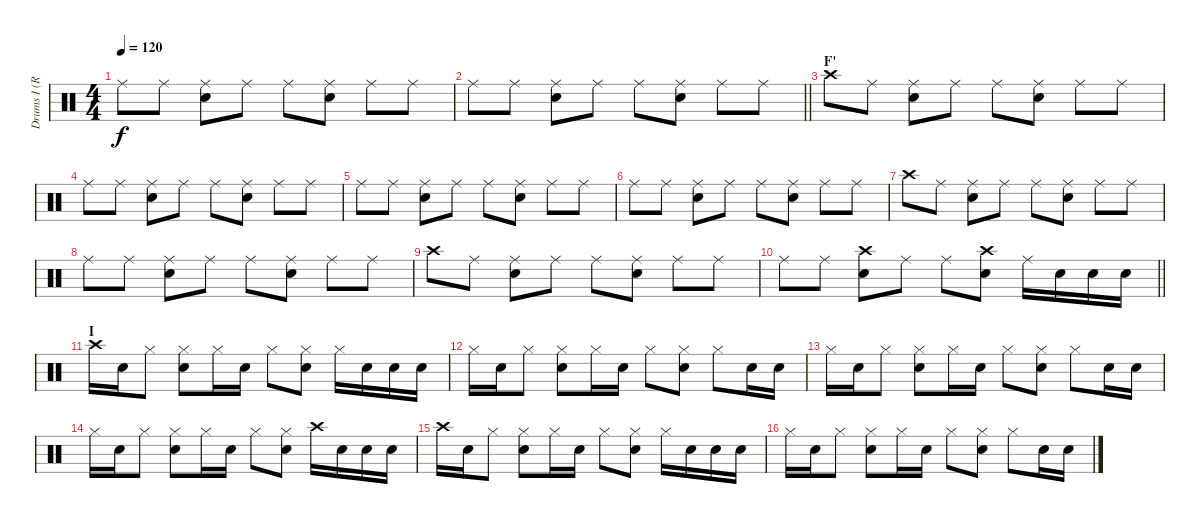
\track ("Drums I (Ruka)" "Drums I (R") {instrument percussion}
\staff {score}
\articulation defaults
\ts (4 4)
\tempo 120
\clef neutral
\ks c "Ride (middle)".8{dy f} "Ride (middle)".8
("Ride (middle)" "Snare (hit) 2").8 "Ride (middle)".8 "Ride (middle)".8 ("Ride (middle)" "Snare (hit) 2").8 "Ride (middle)".8 "Ride (middle)".8 |
\barLineRight lightlight "Ride (middle)".8 "Ride (middle)".8
("Ride (middle)" "Snare (hit) 2").8 "Ride (middle)".8 "Ride (middle)".8 ("Ride (middle)" "Snare (hit) 2").8 "Ride (middle)".8 "Ride (middle)".8 |
\section ("" "F'")
"Crash high (hit)".8 "Ride (middle)".8 ("Ride (middle)" "Snare (hit) 2").8 "Ride (middle)".8 "Ride (middle)".8 ("Ride (middle)" "Snare (hit) 2").8 "Ride (middle)".8 "Ride (middle)".8 |
"Ride (middle)".8 "Ride (middle)".8 ("Ride (middle)" "Snare (hit) 2").8 "Ride (middle)".8 "Ride (middle)".8 ("Ride (middle)" "Snare (hit) 2").8 "Ride (middle)".8 "Ride (middle)".8 |
"Ride (middle)".8 "Ride (middle)".8 ("Ride (middle)" "Snare (hit) 2").8 "Ride (middle)".8 "Ride (middle)".8 ("Ride (middle)" "Snare (hit) 2").8 "Ride (middle)".8 "Ride (middle)".8 |
"Ride (middle)".8 "Ride (middle)".8 ("Ride (middle)" "Snare (hit) 2").8 "Ride (middle)".8 "Ride (middle)".8 ("Ride (middle)" "Snare (hit) 2").8 "Ride (middle)".8 "Ride (middle)".8 |
"Crash high (hit)".8 "Ride (middle)".8 ("Ride (middle)" "Snare (hit) 2").8 "Ride (middle)".8 "Ride (middle)".8 ("Ride (middle)" "Snare (hit) 2").8 "Ride (middle)".8 "Ride (middle)".8 |
"Ride (middle)".8 "Ride (middle)".8 ("Ride (middle)" "Snare (hit) 2").8 "Ride (middle)".8 "Ride (middle)".8 ("Ride (middle)" "Snare (hit) 2").8 "Ride (middle)".8 "Ride (middle)".8 |
"Crash high (hit)".8 "Ride (middle)".8 ("Ride (middle)" "Snare (hit) 2").8 "Ride (middle)".8 "Ride (middle)".8 ("Ride (middle)" "Snare (hit) 2").8 "Ride (middle)".8 "Ride (middle)".8 |
\barLineRight lightlight "Ride (middle)".8 "Ride (middle)".8
("Crash high (hit)" "Snare (hit) 2").8 "Ride (middle)".8 "Ride (middle)".8 ("Crash high (hit)" "Snare (hit) 2").8 "Ride (middle)".16 "Snare (hit) 2".16 "Snare (hit) 2".16 "Snare (hit) 2".16 |
\section ("" "I")
"Crash high (hit)".16 "Snare (hit) 2".16 "Hi-Hat (closed)".8 ("Hi-Hat (closed)" "Snare (hit) 2").8 "Hi-Hat (closed)".16 "Snare (hit) 2".16 "Hi-Hat (closed)".8 ("Hi-Hat (closed)" "Snare (hit) 2").8 "Hi-Hat (closed)".16 "Snare (hit) 2".16 "Snare (hit) 2".16 "Snare (hit) 2".16 |
"Hi-Hat (closed)".16 "Snare (hit) 2".16 "Hi-Hat (closed)".8 ("Hi-Hat (closed)" "Snare (hit) 2").8 "Hi-Hat (closed)".16 "Snare (hit) 2".16 "Hi-Hat (closed)".8 ("Hi-Hat (closed)" "Snare (hit) 2").8 "Hi-Hat (closed)".8 "Snare (hit) 2".16 "Snare (hit) 2".16 |
"Hi-Hat (closed)".16 "Snare (hit) 2".16 "Hi-Hat (closed)".8 ("Hi-Hat (closed)" "Snare (hit) 2").8 "Hi-Hat (closed)".16 "Snare (hit) 2".16 "Hi-Hat (closed)".8 ("Hi-Hat (closed)" "Snare (hit) 2").8 "Hi-Hat (closed)".8 "Snare (hit) 2".16 "Snare (hit) 2".16 |
"Hi-Hat (closed)".16 "Snare (hit) 2".16 "Hi-Hat (closed)".8 ("Hi-Hat (closed)" "Snare (hit) 2").8 "Hi-Hat (closed)".16 "Snare (hit) 2".16 "Hi-Hat (closed)".8 ("Hi-Hat (closed)" "Snare (hit) 2").8 "Crash high (hit)".16 "Snare (hit) 2".16 "Snare (hit) 2".16 "Snare (hit) 2".16 |
"Crash high (hit)".16 "Snare (hit) 2".16 "Hi-Hat (closed)".8 ("Hi-Hat (closed)" "Snare (hit) 2").8 "Hi-Hat (closed)".16 "Snare (hit) 2".16 "Hi-Hat (closed)".8 ("Hi-Hat (closed)" "Snare (hit) 2").8 "Hi-Hat (closed)".16 "Snare (hit) 2".16 "Snare (hit) 2".16 "Snare (hit) 2".16 |
"Hi-Hat (closed)".16 "Snare (hit) 2".16 "Hi-Hat (closed)".8 ("Hi-Hat (closed)" "Snare (hit) 2").8 "Hi-Hat (closed)".16 "Snare (hit) 2".16 "Hi-Hat (closed)".8 ("Hi-Hat (closed)" "Snare (hit) 2").8 "Hi-Hat (closed)".8 "Snare (hit) 2".16 "Snare (hit) 2".16
